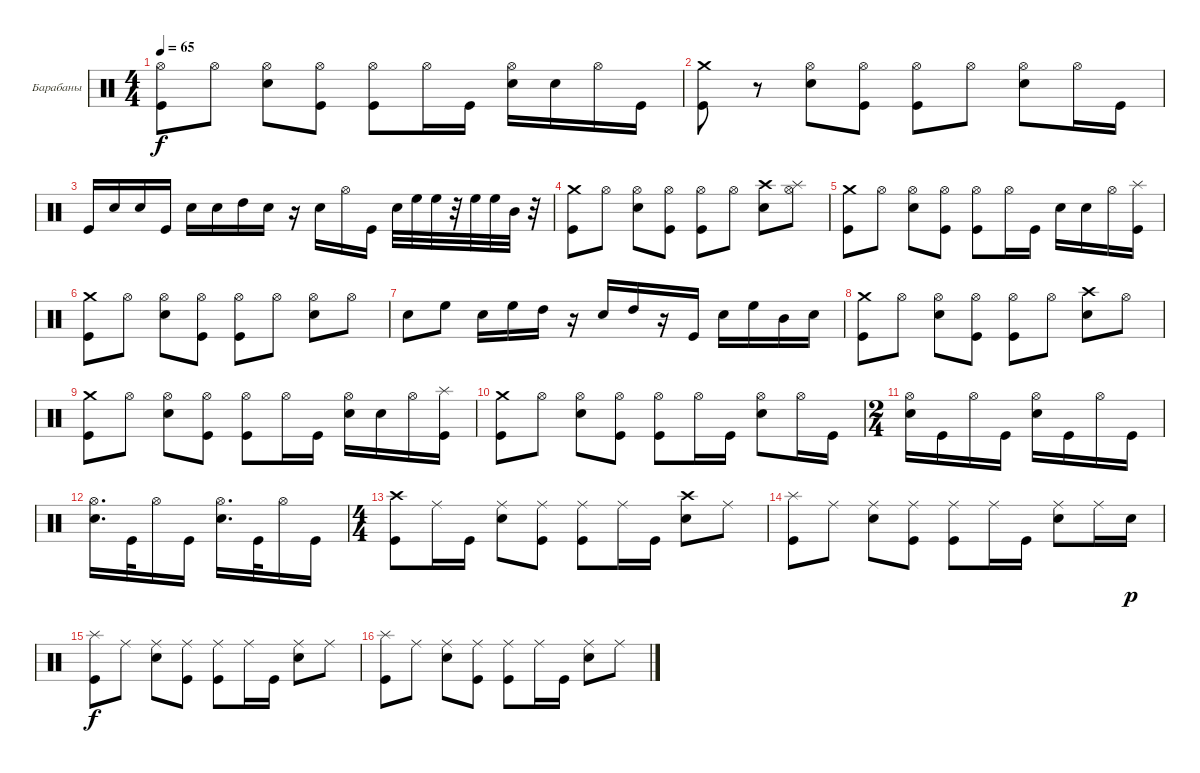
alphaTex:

\bracketExtendMode groupsimilarinstruments
\firstSystemTrackNameOrientation horizontal
\otherSystemsTrackNameOrientation horizontal
\track ("Ударные" "Барабаны") {instrument percussion}
\staff {score}
\articulation defaults
\ts (4 4)
\tempo 65
\clef neutral
\ks c
("Hi-Hat (open)" "Kick (hit)").8{dy f} "Hi-Hat (open)".8 ("Hi-Hat (open)" "Snare (hit) 2").8 ("Hi-Hat (open)" "Kick (hit)").8 ("Hi-Hat (open)" "Kick (hit)").8 "Hi-Hat (open)".16 "Kick (hit)".16 ("Hi-Hat (open)" "Snare (hit) 2").16 "Snare (hit) 2".16 "Hi-Hat (open)".16 "Kick (hit)".16 |
("Crash medium (hit)" "Kick (hit)").8 r.8 ("Hi-Hat (open)" "Snare (hit) 2").8 ("Hi-Hat (open)" "Kick (hit)").8 ("Hi-Hat (open)" "Kick (hit)").8 "Hi-Hat (open)".8 ("Hi-Hat (open)" "Snare (hit) 2").8 "Hi-Hat (open)".16 "Kick (hit)".16 |
"Kick (hit)".16 "Snare (hit) 2".16 "Snare (hit) 2".16 "Kick (hit)".16 "Snare (hit) 2".16 "Snare (hit) 2".16 "High Tom (hit)".16 "Snare (hit) 2".16 r.16 "Snare (hit) 2".16 "Hi-Hat (open)".16 "Kick (hit)".16 "Snare (hit) 2".32 "High Floor Tom (hit)".32 "High Floor Tom (hit)".32 r.32 "High Floor Tom (hit)".32 "High Floor Tom (hit)".32 "Mid Tom (hit)".32 r.32 |
("Crash medium (hit)" "Kick (hit)").8 "Hi-Hat (open)".8 ("Hi-Hat (open)" "Snare (hit) 2").8 ("Hi-Hat (open)" "Kick (hit)").8 ("Hi-Hat (open)" "Kick (hit)").8 "Hi-Hat (open)".8 ("Crash high (hit)" "Snare (hit) 2").8 ("Hi-Hat (open)" "Splash (hit)").8 |
("Crash medium (hit)" "Kick (hit)").8 "Hi-Hat (open)".8 ("Hi-Hat (open)" "Snare (hit) 2").8 ("Hi-Hat (open)" "Kick (hit)").8 ("Hi-Hat (open)" "Kick (hit)").8 "Hi-Hat (open)".16 "Kick (hit)".16 "Snare (hit) 2".16 "Snare (hit) 2".16 "Hi-Hat (open)".16 ("Splash (hit)" "Kick (hit)").16 |
("Crash medium (hit)" "Kick (hit)").8 "Hi-Hat (open)".8 ("Hi-Hat (open)" "Snare (hit) 2").8 ("Hi-Hat (open)" "Kick (hit)").8 ("Hi-Hat (open)" "Kick (hit)").8 "Hi-Hat (open)".8 ("Hi-Hat (open)" "Snare (hit) 2").8 "Hi-Hat (open)".8 |
"Snare (hit) 2".8 "High Floor Tom (hit)".8 "Snare (hit) 2".16 "High Floor Tom (hit)".16 "High Tom (hit)".16 r.16 "Snare (hit) 2".16 "High Tom (hit)".16 r.16 "Kick (hit)".16 "Snare (hit) 2".16 "High Floor Tom (hit)".16 "Mid Tom (hit)".16 "Snare (hit) 2".16 |
("Crash medium (hit)" "Kick (hit)").8 "Hi-Hat (open)".8 ("Hi-Hat (open)" "Snare (hit) 2").8 ("Hi-Hat (open)" "Kick (hit)").8 ("Hi-Hat (open)" "Kick (hit)").8 "Hi-Hat (open)".8 ("Crash high (hit)" "Snare (hit) 2").8 "Hi-Hat (open)".8 |
("Crash medium (hit)" "Kick (hit)").8 "Hi-Hat (open)".8 ("Hi-Hat (open)" "Snare (hit) 2").8 ("Hi-Hat (open)" "Kick (hit)").8 ("Hi-Hat (open)" "Kick (hit)").8 "Hi-Hat (open)".16 "Kick (hit)".16 ("Hi-Hat (open)" "Snare (hit) 2").16 "Snare (hit) 2".16 "Hi-Hat (open)".16 ("Splash (hit)" "Kick (hit)").16 |
("Crash medium (hit)" "Kick (hit)").8 "Hi-Hat (open)".8 ("Hi-Hat (open)" "Snare (hit) 2").8 ("Hi-Hat (open)" "Kick (hit)").8 ("Hi-Hat (open)" "Kick (hit)").8 "Hi-Hat (open)".16 "Kick (hit)".16 ("Hi-Hat (open)" "Snare (hit) 2").8 "Hi-Hat (open)".16 "Kick (hit)".16 |
\ts (2 4)
("Hi-Hat (open)" "Snare (hit) 2").16 "Kick (hit)".16 "Hi-Hat (open)".16 "Kick (hit)".16 ("Hi-Hat (open)" "Snare (hit) 2").16 "Kick (hit)".16 "Hi-Hat (open)".16 "Kick (hit)".16 |
("Hi-Hat (open)" "Snare (hit) 2").16{d} "Kick (hit)".32 "Hi-Hat (open)".16 "Kick (hit)".16 ("Hi-Hat (open)" "Snare (hit) 2").16{d} "Kick (hit)".32 "Hi-Hat (open)".16 "Kick (hit)".16 |
\ts (4 4)
("Crash high (hit)" "Kick (hit)").8 "Ride (middle)".16 "Kick (hit)".16 ("Ride (middle)" "Snare (hit) 2").8 ("Ride (middle)" "Kick (hit)").8 ("Ride (middle)" "Kick (hit)").8 "Ride (middle)".16 "Kick (hit)".16 ("Crash high (hit)" "Snare (hit) 2").8 "Ride (middle)".8 |
("Splash (hit)" "Kick (hit)").8 "Ride (middle)".8 ("Ride (middle)" "Snare (hit) 2").8 ("Ride (middle)" "Kick (hit)").8 ("Ride (middle)" "Kick (hit)").8 "Ride (middle)".16 "Kick (hit)".16 ("Ride (middle)" "Snare (hit) 2").8 "Ride (middle)".16 "Snare (hit) 2".16{dy p} |
("Splash (hit)" "Kick (hit)").8{dy f} "Ride (middle)".8 ("Ride (middle)" "Snare (hit) 2").8 ("Ride (middle)" "Kick (hit)").8 ("Ride (middle)" "Kick (hit)").8 "Ride (middle)".16 "Kick (hit)".16 ("Ride (middle)" "Snare (hit) 2").8 "Ride (middle)".8 |
("Splash (hit)" "Kick (hit)").8 "Ride (middle)".8 ("Ride (middle)" "Snare (hit) 2").8 ("Ride (middle)" "Kick (hit)").8 ("Ride (middle)" "Kick (hit)").8 "Ride (middle)".16 "Kick (hit)".16 ("Ride (middle)" "Snare (hit) 2").8 "Ride (middle)".8
